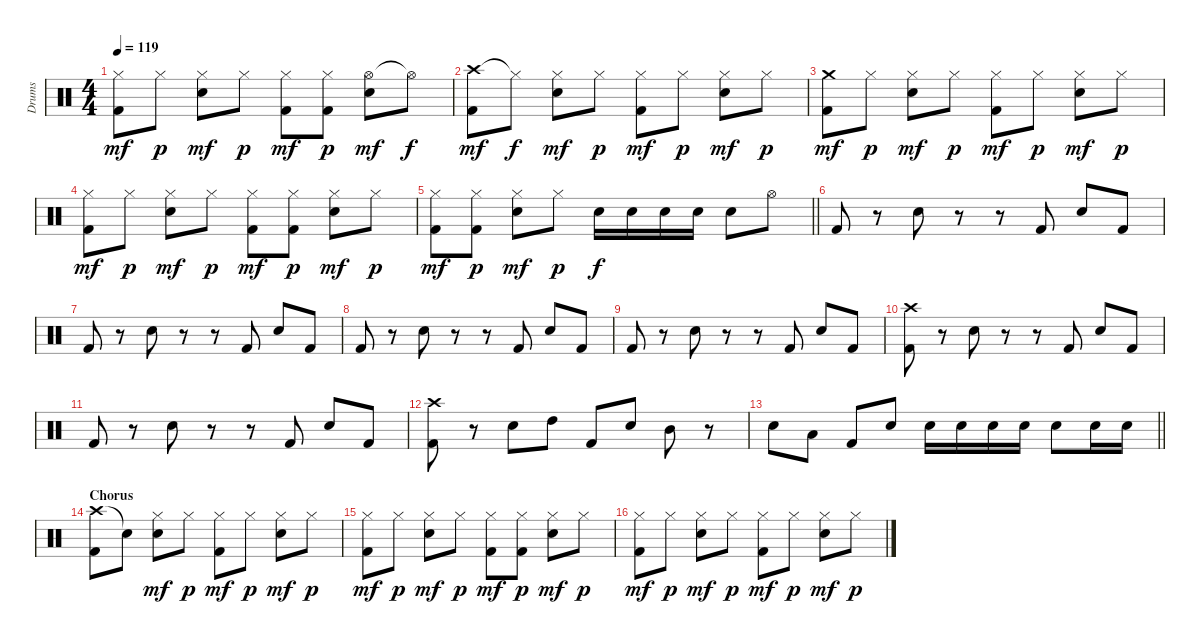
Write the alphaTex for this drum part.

\track ("Drums" "Drums") {instrument percussion}
\staff {score}
\articulation defaults
\ts (4 4)
\tempo 119
\clef neutral
\ks c
("Hi-Hat (closed)" "Kick (hit) 2").8{dy mf} "Hi-Hat (closed)".8{dy p} ("Hi-Hat (closed)" "Electric Snare (hit)").8{dy mf} "Hi-Hat (closed)".8{dy p} ("Hi-Hat (closed)" "Kick (hit) 2").8{dy mf} ("Hi-Hat (closed)" "Kick (hit) 2").8{dy p} ("Hi-Hat (open)" "Electric Snare (hit)").8{dy mf} "Hi-Hat (open)"{t}.8{dy f} |
("Crash high (hit)" "Kick (hit) 2").8{dy mf} "Hi-Hat (closed)"{t}.8{dy f} ("Hi-Hat (closed)" "Electric Snare (hit)").8{dy mf} "Hi-Hat (closed)".8{dy p} ("Hi-Hat (closed)" "Kick (hit) 2").8{dy mf} "Hi-Hat (closed)".8{dy p} ("Hi-Hat (closed)" "Electric Snare (hit)").8{dy mf} "Hi-Hat (closed)".8{dy p} |
("Crash medium (hit)" "Kick (hit) 2").8{dy mf} "Hi-Hat (closed)".8{dy p} ("Hi-Hat (closed)" "Electric Snare (hit)").8{dy mf} "Hi-Hat (closed)".8{dy p} ("Hi-Hat (closed)" "Kick (hit) 2").8{dy mf} "Hi-Hat (closed)".8{dy p} ("Hi-Hat (closed)" "Electric Snare (hit)").8{dy mf} "Hi-Hat (closed)".8{dy p} |
("Hi-Hat (closed)" "Kick (hit) 2").8{dy mf} "Hi-Hat (closed)".8{dy p} ("Hi-Hat (closed)" "Electric Snare (hit)").8{dy mf} "Hi-Hat (closed)".8{dy p} ("Hi-Hat (closed)" "Kick (hit) 2").8{dy mf} ("Hi-Hat (closed)" "Kick (hit) 2").8{dy p} ("Hi-Hat (closed)" "Electric Snare (hit)").8{dy mf} "Hi-Hat (closed)".8{dy p} |
\barLineRight lightlight
("Hi-Hat (closed)" "Kick (hit) 2").8{dy mf} ("Hi-Hat (closed)" "Kick (hit) 2").8{dy p} ("Hi-Hat (closed)" "Electric Snare (hit)").8{dy mf} "Hi-Hat (closed)".8{dy p} "Electric Snare (hit)".16{dy f} "Electric Snare (hit)".16 "Electric Snare (hit)".16 "Electric Snare (hit)".16 "Electric Snare (hit)".8 "Hi-Hat (open)".8 |
"Kick (hit) 2".8 r.8 "Electric Snare (hit)".8 r.8 r.8 "Kick (hit) 2".8 "Electric Snare (hit)".8 "Kick (hit) 2".8 |
"Kick (hit) 2".8 r.8 "Electric Snare (hit)".8 r.8 r.8 "Kick (hit) 2".8 "Electric Snare (hit)".8 "Kick (hit) 2".8 |
"Kick (hit) 2".8 r.8 "Electric Snare (hit)".8 r.8 r.8 "Kick (hit) 2".8 "Electric Snare (hit)".8 "Kick (hit) 2".8 |
"Kick (hit) 2".8 r.8 "Electric Snare (hit)".8 r.8 r.8 "Kick (hit) 2".8 "Electric Snare (hit)".8 "Kick (hit) 2".8 |
("Crash high (hit)" "Kick (hit) 2").8 r.8 "Electric Snare (hit)".8 r.8 r.8 "Kick (hit) 2".8 "Electric Snare (hit)".8 "Kick (hit) 2".8 |
"Kick (hit) 2".8 r.8 "Electric Snare (hit)".8 r.8 r.8 "Kick (hit) 2".8 "Electric Snare (hit)".8 "Kick (hit) 2".8 |
("Crash high (hit)" "Kick (hit) 2").8 r.8 "Electric Snare (hit)".8 "High Tom (hit)".8 "Kick (hit) 2".8 "Electric Snare (hit)".8 "Mid Tom (hit)".8 r.8 |
\barLineRight lightlight "Electric Snare (hit)".8 "Low Tom (hit)".8 "Kick (hit) 2".8 "Electric Snare (hit)".8 "Electric Snare (hit)".16 "Electric Snare (hit)".16 "Electric Snare (hit)".16 "Electric Snare (hit)".16 "Electric Snare (hit)".8 "Electric Snare (hit)".16 "Electric Snare (hit)".16
|
\section ("" "Chorus")
("Crash high (hit)" "Kick (hit) 2").8 "Snare (hit)"{t}.8 ("Hi-Hat (closed)" "Electric Snare (hit)").8{dy mf} "Hi-Hat (closed)".8{dy p} ("Hi-Hat (closed)" "Kick (hit) 2").8{dy mf} "Hi-Hat (closed)".8{dy p} ("Hi-Hat (closed)" "Electric Snare (hit)").8{dy mf} "Hi-Hat (closed)".8{dy p} |
("Hi-Hat (closed)" "Kick (hit) 2").8{dy mf} "Hi-Hat (closed)".8{dy p} ("Hi-Hat (closed)" "Electric Snare (hit)").8{dy mf} "Hi-Hat (closed)".8{dy p} ("Hi-Hat (closed)" "Kick (hit) 2").8{dy mf} ("Hi-Hat (closed)" "Kick (hit) 2").8{dy p} ("Hi-Hat (closed)" "Electric Snare (hit)").8{dy mf} "Hi-Hat (closed)".8{dy p} |
("Hi-Hat (closed)" "Kick (hit) 2").8{dy mf} "Hi-Hat (closed)".8{dy p} ("Hi-Hat (closed)" "Electric Snare (hit)").8{dy mf} "Hi-Hat (closed)".8{dy p} ("Hi-Hat (closed)" "Kick (hit) 2").8{dy mf} "Hi-Hat (closed)".8{dy p} ("Hi-Hat (closed)" "Electric Snare (hit)").8{dy mf} "Hi-Hat (closed)".8{dy p}
